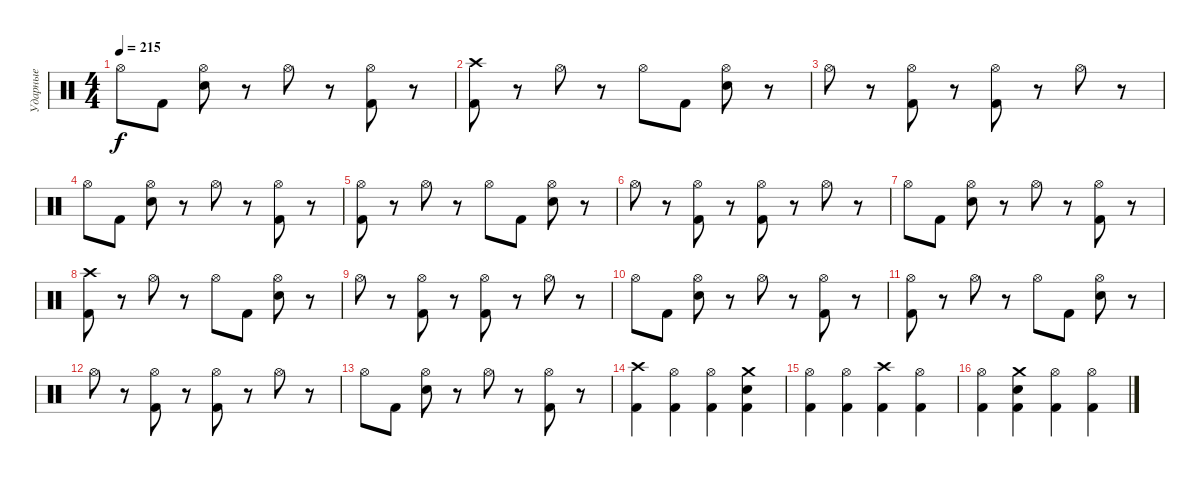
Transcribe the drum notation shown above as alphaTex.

\track ("Ударные" "Ударные") {instrument percussion}
\staff {score}
\articulation defaults
\ts (4 4)
\tempo 215
\clef neutral
\ks c "Hi-Hat (open)".8{dy f} "Kick (hit) 2".8
("Hi-Hat (open)" "Snare (hit) 2").8 r.8 "Hi-Hat (open)".8 r.8 ("Hi-Hat (open)" "Kick (hit) 2").8 r.8 |
("Crash high (hit)" "Kick (hit) 2").8 r.8 "Hi-Hat (open)".8 r.8 "Hi-Hat (open)".8 "Kick (hit) 2".8 ("Hi-Hat (open)" "Snare (hit) 2").8 r.8 |
"Hi-Hat (open)".8 r.8 ("Hi-Hat (open)" "Kick (hit) 2").8 r.8 ("Hi-Hat (open)" "Kick (hit) 2").8 r.8 "Hi-Hat (open)".8 r.8 |
"Hi-Hat (open)".8 "Kick (hit) 2".8 ("Hi-Hat (open)" "Snare (hit) 2").8 r.8 "Hi-Hat (open)".8 r.8 ("Hi-Hat (open)" "Kick (hit) 2").8 r.8 |
("Hi-Hat (open)" "Kick (hit) 2").8 r.8 "Hi-Hat (open)".8 r.8 "Hi-Hat (open)".8 "Kick (hit) 2".8 ("Hi-Hat (open)" "Snare (hit) 2").8 r.8 |
"Hi-Hat (open)".8 r.8 ("Hi-Hat (open)" "Kick (hit) 2").8 r.8 ("Hi-Hat (open)" "Kick (hit) 2").8 r.8 "Hi-Hat (open)".8 r.8 |
"Hi-Hat (open)".8 "Kick (hit) 2".8 ("Hi-Hat (open)" "Snare (hit) 2").8 r.8 "Hi-Hat (open)".8 r.8 ("Hi-Hat (open)" "Kick (hit) 2").8 r.8 |
("Crash high (hit)" "Kick (hit) 2").8 r.8 "Hi-Hat (open)".8 r.8 "Hi-Hat (open)".8 "Kick (hit) 2".8 ("Hi-Hat (open)" "Snare (hit) 2").8 r.8 |
"Hi-Hat (open)".8 r.8 ("Hi-Hat (open)" "Kick (hit) 2").8 r.8 ("Hi-Hat (open)" "Kick (hit) 2").8 r.8 "Hi-Hat (open)".8 r.8 |
"Hi-Hat (open)".8 "Kick (hit) 2".8 ("Hi-Hat (open)" "Snare (hit) 2").8 r.8 "Hi-Hat (open)".8 r.8 ("Hi-Hat (open)" "Kick (hit) 2").8 r.8 |
("Hi-Hat (open)" "Kick (hit) 2").8 r.8 "Hi-Hat (open)".8 r.8 "Hi-Hat (open)".8 "Kick (hit) 2".8 ("Hi-Hat (open)" "Snare (hit) 2").8 r.8 |
"Hi-Hat (open)".8 r.8 ("Hi-Hat (open)" "Kick (hit) 2").8 r.8 ("Hi-Hat (open)" "Kick (hit) 2").8 r.8 "Hi-Hat (open)".8 r.8 |
"Hi-Hat (open)".8 "Kick (hit) 2".8 ("Hi-Hat (open)" "Snare (hit) 2").8 r.8 "Hi-Hat (open)".8 r.8 ("Hi-Hat (open)" "Kick (hit) 2").8 r.8 |
("Crash high (hit)" "Kick (hit) 2").4 ("Hi-Hat (open)" "Kick (hit) 2").4 ("Hi-Hat (open)" "Kick (hit) 2").4 ("Crash medium (hit)" "Snare (hit) 2" "Kick (hit) 2").4 |
("Hi-Hat (open)" "Kick (hit) 2").4 ("Hi-Hat (open)" "Kick (hit) 2").4 ("Crash high (hit)" "Kick (hit) 2").4 ("Hi-Hat (open)" "Kick (hit) 2").4 |
("Hi-Hat (open)" "Kick (hit) 2").4 ("Snare (hit) 2" "Crash medium (hit)" "Kick (hit) 2").4 ("Hi-Hat (open)" "Kick (hit) 2").4 ("Hi-Hat (open)" "Kick (hit) 2").4
